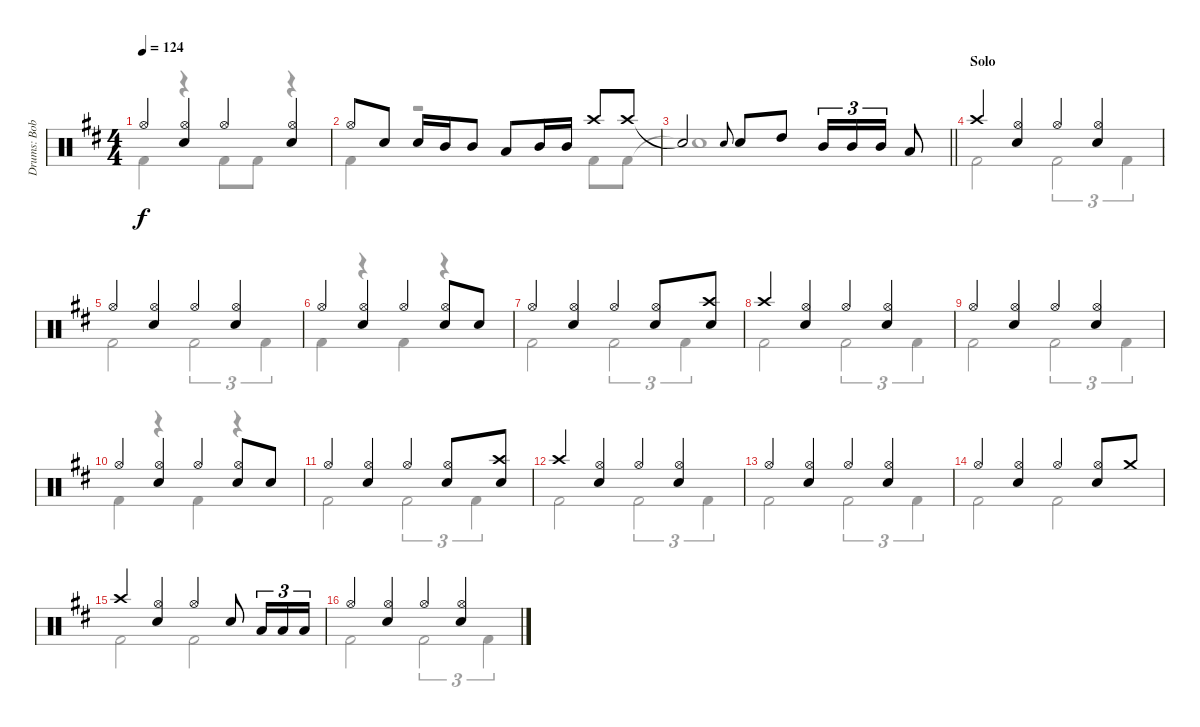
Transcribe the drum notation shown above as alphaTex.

\track ("Drums: Bobby" "Drums: Bob") {instrument percussion}
\staff {score}
\articulation defaults
\voice
\ts (4 4)
\tempo 124
\clef neutral
\ks d "Hi-Hat (open)".4{dy f}
("Hi-Hat (open)" "Snare (hit) 2").4 "Hi-Hat (open)".4 ("Hi-Hat (open)" "Snare (hit) 2").4 |
"Hi-Hat (open)".8 "Snare (hit) 2".8 "Snare (hit) 2".16 "Mid Tom (hit)".16 "Mid Tom (hit)".8 "Low Tom (hit)".8 "Mid Tom (hit)".16 "Mid Tom (hit)".16 "Crash high (hit)".8 "Crash high (hit)".8 |
\barLineRight lightlight "Snare (hit)"{t}.2 "Electric Snare (hit)".8{gr onbeat} "Snare (hit) 2".8 "High Tom (hit)".8 "Mid Tom (hit)".16{tu (3 2)} "Mid Tom (hit)".16{tu (3 2)} "Mid Tom (hit)".16{tu (3 2)} "Low Tom (hit)".8
|
\section ("" "Solo")
"Crash high (hit)".4 ("Hi-Hat (open)" "Snare (hit) 2").4 "Hi-Hat (open)".4 ("Hi-Hat (open)" "Snare (hit) 2").4 |
"Hi-Hat (open)".4 ("Hi-Hat (open)" "Snare (hit) 2").4 "Hi-Hat (open)".4 ("Hi-Hat (open)" "Snare (hit) 2").4 |
"Hi-Hat (open)".4 ("Hi-Hat (open)" "Snare (hit) 2").4 "Hi-Hat (open)".4 ("Hi-Hat (open)" "Snare (hit) 2").8 "Snare (hit) 2".8 |
"Hi-Hat (open)".4 ("Hi-Hat (open)" "Snare (hit) 2").4 "Hi-Hat (open)".4 ("Hi-Hat (open)" "Snare (hit) 2").8 ("Crash high (hit)" "Snare (hit) 2").8 |
"Crash high (hit)".4 ("Hi-Hat (open)" "Snare (hit) 2").4 "Hi-Hat (open)".4 ("Hi-Hat (open)" "Snare (hit) 2").4 |
"Hi-Hat (open)".4 ("Hi-Hat (open)" "Snare (hit) 2").4 "Hi-Hat (open)".4 ("Hi-Hat (open)" "Snare (hit) 2").4 |
"Hi-Hat (open)".4 ("Hi-Hat (open)" "Snare (hit) 2").4 "Hi-Hat (open)".4 ("Hi-Hat (open)" "Snare (hit) 2").8 "Snare (hit) 2".8 |
"Hi-Hat (open)".4 ("Hi-Hat (open)" "Snare (hit) 2").4 "Hi-Hat (open)".4 ("Hi-Hat (open)" "Snare (hit) 2").8 ("Crash high (hit)" "Snare (hit) 2").8 |
"Crash high (hit)".4 ("Hi-Hat (open)" "Snare (hit) 2").4 "Hi-Hat (open)".4 ("Hi-Hat (open)" "Snare (hit) 2").4 |
"Hi-Hat (open)".4 ("Hi-Hat (open)" "Snare (hit) 2").4 "Hi-Hat (open)".4 ("Hi-Hat (open)" "Snare (hit) 2").4 |
"Hi-Hat (open)".4 ("Hi-Hat (open)" "Snare (hit) 2").4 "Hi-Hat (open)".4 ("Hi-Hat (open)" "Snare (hit) 2").8 "Crash medium (hit)".8 |
"Crash high (hit)".4 ("Hi-Hat (open)" "Snare (hit) 2").4 "Hi-Hat (open)".4 "Snare (hit) 2".8 "Low Tom (hit)".16{tu (3 2)} "Low Tom (hit)".16{tu (3 2)} "Low Tom (hit)".16{tu (3 2)} |
"Hi-Hat (open)".4 ("Hi-Hat (open)" "Snare (hit) 2").4 "Hi-Hat (open)".4 ("Hi-Hat (open)" "Snare (hit) 2").4
\voice
\clef neutral
\ottava regular
\simile none
\ks d "Kick (hit) 2".4{dy f}
r.4 "Kick (hit) 2".8 "Kick (hit) 2".8 r.4 |
"Kick (hit) 2".4 r.2 "Kick (hit) 2".8 "Kick (hit) 2".8 |
\barLineRight lightlight "Snare (hit)"{t}.1
|
"Kick (hit) 2".2 "Kick (hit) 2".2{tu (3 2)} "Kick (hit) 2".4{tu (3 2)} |
"Kick (hit) 2".2 "Kick (hit) 2".2{tu (3 2)} "Kick (hit) 2".4{tu (3 2)} |
"Kick (hit) 2".4 r.4 "Kick (hit) 2".4 r.4 |
"Kick (hit) 2".2 "Kick (hit) 2".2{tu (3 2)} "Kick (hit) 2".4{tu (3 2)} |
"Kick (hit) 2".2 "Kick (hit) 2".2{tu (3 2)} "Kick (hit) 2".4{tu (3 2)} |
"Kick (hit) 2".2 "Kick (hit) 2".2{tu (3 2)} "Kick (hit) 2".4{tu (3 2)} |
"Kick (hit) 2".4 r.4 "Kick (hit) 2".4 r.4 |
"Kick (hit) 2".2 "Kick (hit) 2".2{tu (3 2)} "Kick (hit) 2".4{tu (3 2)} |
"Kick (hit) 2".2 "Kick (hit) 2".2{tu (3 2)} "Kick (hit) 2".4{tu (3 2)} |
"Kick (hit) 2".2 "Kick (hit) 2".2{tu (3 2)} "Kick (hit) 2".4{tu (3 2)} |
"Kick (hit) 2".2 "Kick (hit) 2".2 |
"Kick (hit) 2".2 "Kick (hit) 2".2 |
"Kick (hit) 2".2 "Kick (hit) 2".2{tu (3 2)} "Kick (hit) 2".4{tu (3 2)}
